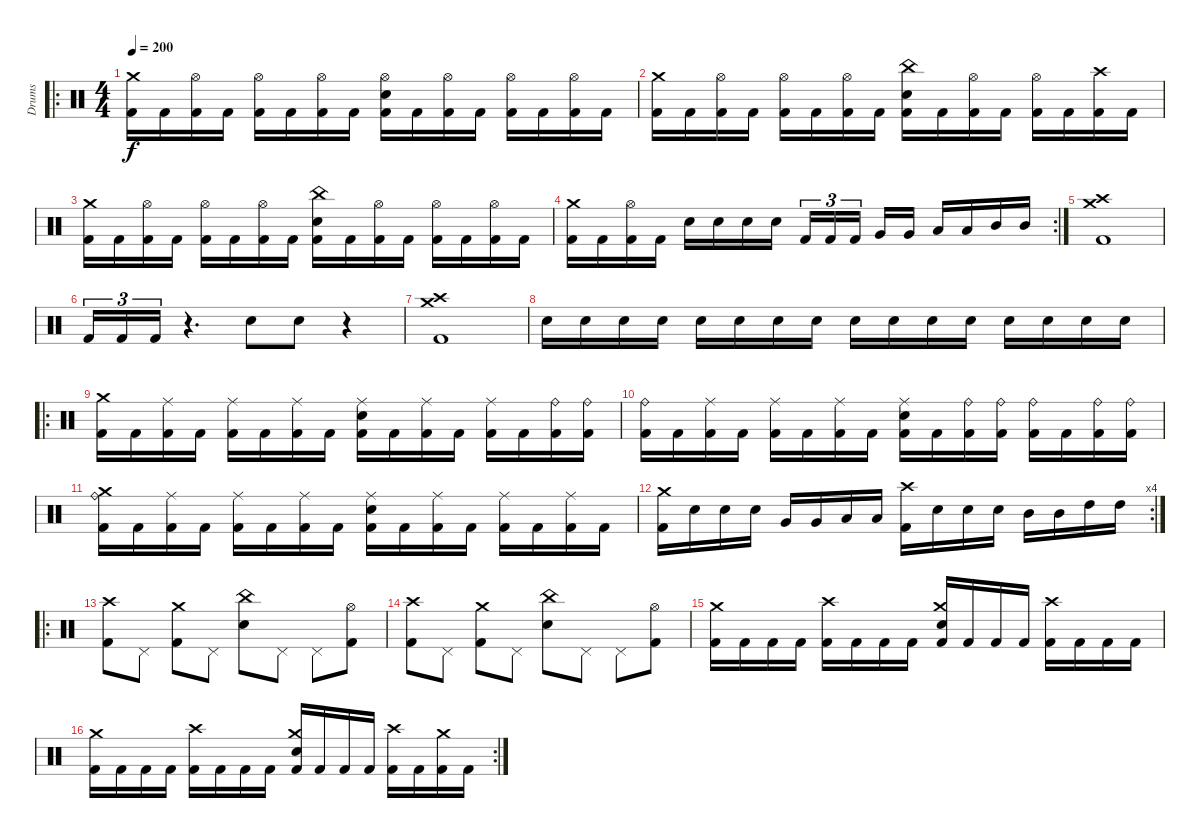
\track ("Drums" "Drums") {instrument percussion}
\staff {score}
\articulation defaults
\ro
\ts (4 4)
\tempo 200
\clef neutral
\ks c
("Kick (hit) 2" "Crash medium (hit)").16{dy f} "Kick (hit) 2".16 ("Kick (hit) 2" "Hi-Hat (open)").16 "Kick (hit) 2".16 ("Kick (hit) 2" "Hi-Hat (open)").16 "Kick (hit) 2".16 ("Kick (hit) 2" "Hi-Hat (open)").16 "Kick (hit) 2".16 ("Kick (hit) 2" "Electric Snare (hit)" "Hi-Hat (open)").16 "Kick (hit) 2".16 ("Kick (hit) 2" "Hi-Hat (open)").16 "Kick (hit) 2".16 ("Kick (hit) 2" "Hi-Hat (open)").16 "Kick (hit) 2".16 ("Kick (hit) 2" "Hi-Hat (open)").16 "Kick (hit) 2".16 |
("Kick (hit) 2" "Crash medium (hit)").16 "Kick (hit) 2".16 ("Kick (hit) 2" "Hi-Hat (open)").16 "Kick (hit) 2".16 ("Kick (hit) 2" "Hi-Hat (open)").16 "Kick (hit) 2".16 ("Kick (hit) 2" "Hi-Hat (open)").16 "Kick (hit) 2".16 ("Kick (hit) 2" "Electric Snare (hit)" "China (hit)").16 "Kick (hit) 2".16 ("Kick (hit) 2" "Hi-Hat (open)").16 "Kick (hit) 2".16 ("Kick (hit) 2" "Hi-Hat (open)").16 "Kick (hit) 2".16 ("Kick (hit) 2" "Crash high (hit)").16 "Kick (hit) 2".16 |
("Kick (hit) 2" "Crash medium (hit)").16 "Kick (hit) 2".16 ("Kick (hit) 2" "Hi-Hat (open)").16 "Kick (hit) 2".16 ("Kick (hit) 2" "Hi-Hat (open)").16 "Kick (hit) 2".16 ("Kick (hit) 2" "Hi-Hat (open)").16 "Kick (hit) 2".16 ("Kick (hit) 2" "Electric Snare (hit)" "China (hit)").16 "Kick (hit) 2".16 ("Kick (hit) 2" "Hi-Hat (open)").16 "Kick (hit) 2".16 ("Kick (hit) 2" "Hi-Hat (open)").16 "Kick (hit) 2".16 ("Kick (hit) 2" "Hi-Hat (open)").16 "Kick (hit) 2".16 |
\rc 2
("Kick (hit) 2" "Crash medium (hit)").16 "Kick (hit) 2".16 ("Kick (hit) 2" "Hi-Hat (open)").16 "Kick (hit) 2".16 "Electric Snare (hit)".16 "Electric Snare (hit)".16 "Electric Snare (hit)".16 "Electric Snare (hit)".16 "Kick (hit) 2".16{tu (3 2)} "Kick (hit) 2".16{tu (3 2)} "Kick (hit) 2".16{tu (3 2)} "Very Low Tom (hit)".16 "Very Low Tom (hit)".16 "Low Tom (hit)".16 "Low Tom (hit)".16 "Mid Tom (hit)".16 "Mid Tom (hit)".16 |
("Kick (hit) 2" "Crash high (hit)" "Crash medium (hit)").1 |
"Kick (hit) 2".16{tu (3 2)} "Kick (hit) 2".16{tu (3 2)} "Kick (hit) 2".16{tu (3 2)} r.4{d} "Electric Snare (hit)".8 "Electric Snare (hit)".8 r.4 |
("Kick (hit) 2" "Crash high (hit)" "Crash medium (hit)").1 |
"Electric Snare (hit)"{x}.16{volume 0} "Electric Snare (hit)".16{volume 13} "Electric Snare (hit)".16 "Electric Snare (hit)".16 "Electric Snare (hit)".16 "Electric Snare (hit)".16 "Electric Snare (hit)".16 "Electric Snare (hit)".16 "Electric Snare (hit)".16 "Electric Snare (hit)".16 "Electric Snare (hit)".16 "Electric Snare (hit)".16 "Electric Snare (hit)".16 "Electric Snare (hit)".16 "Electric Snare (hit)".16 "Electric Snare (hit)".16 |
\ro
("Kick (hit) 2" "Crash medium (hit)").16 "Kick (hit) 2".16 ("Kick (hit) 2" "Ride (middle)").16 "Kick (hit) 2".16 ("Kick (hit) 2" "Ride (middle)").16 "Kick (hit) 2".16 ("Kick (hit) 2" "Ride (middle)").16 "Kick (hit) 2".16 ("Kick (hit) 2" "Electric Snare (hit)" "Ride (middle)").16 "Kick (hit) 2".16 ("Kick (hit) 2" "Ride (middle)").16 "Kick (hit) 2".16 ("Kick (hit) 2" "Ride (middle)").16 "Kick (hit) 2".16 ("Kick (hit) 2" "Ride (bell)").16 ("Kick (hit) 2" "Ride (bell)").16 |
("Kick (hit) 2" "Ride (bell)").16 "Kick (hit) 2".16 ("Kick (hit) 2" "Ride (middle)").16 "Kick (hit) 2".16 ("Kick (hit) 2" "Ride (middle)").16 "Kick (hit) 2".16 ("Kick (hit) 2" "Ride (middle)").16 "Kick (hit) 2".16 ("Kick (hit) 2" "Electric Snare (hit)" "Ride (middle)").16 "Kick (hit) 2".16 ("Kick (hit) 2" "Ride (bell)").16 ("Kick (hit) 2" "Ride (bell)").16 ("Kick (hit) 2" "Ride (bell)").16 "Kick (hit) 2".16 ("Kick (hit) 2" "Ride (bell)").16 ("Kick (hit) 2" "Ride (bell)").16 |
("Kick (hit) 2" "Ride (bell)" "Crash medium (hit)").16 "Kick (hit) 2".16 ("Kick (hit) 2" "Ride (middle)").16 "Kick (hit) 2".16 ("Kick (hit) 2" "Ride (middle)").16 "Kick (hit) 2".16 ("Kick (hit) 2" "Ride (middle)").16 "Kick (hit) 2".16 ("Kick (hit) 2" "Electric Snare (hit)" "Ride (middle)").16 "Kick (hit) 2".16 ("Kick (hit) 2" "Ride (middle)").16 "Kick (hit) 2".16 ("Kick (hit) 2" "Ride (middle)").16 "Kick (hit) 2".16 ("Kick (hit) 2" "Ride (middle)").16 "Kick (hit) 2".16 |
\rc 4
("Kick (hit) 2" "Crash medium (hit)").16 "Electric Snare (hit)".16 "Electric Snare (hit)".16 "Electric Snare (hit)".16 "Very Low Tom (hit)".16 "Very Low Tom (hit)".16 "Low Tom (hit)".16 "Low Tom (hit)".16 ("Kick (hit) 2" "Crash high (hit)").16 "Electric Snare (hit)".16 "Electric Snare (hit)".16 "Electric Snare (hit)".16 "Mid Tom (hit)".16 "Mid Tom (hit)".16 "High Tom (hit)".16 "High Tom (hit)".16 |
\ro
("Kick (hit) 2" "Crash high (hit)").8 "Pedal Hi-Hat (hit)".8 ("Kick (hit) 2" "Crash medium (hit)").8 "Pedal Hi-Hat (hit)".8 ("Electric Snare (hit)" "China (hit)").8 "Pedal Hi-Hat (hit)".8 "Pedal Hi-Hat (hit)".8 ("Kick (hit) 2" "Hi-Hat (open)").8 |
("Kick (hit) 2" "Crash high (hit)").8 "Pedal Hi-Hat (hit)".8 ("Kick (hit) 2" "Crash medium (hit)").8 "Pedal Hi-Hat (hit)".8 ("Electric Snare (hit)" "China (hit)").8 "Pedal Hi-Hat (hit)".8 "Pedal Hi-Hat (hit)".8 ("Kick (hit) 2" "Hi-Hat (open)").8 |
("Kick (hit) 2" "Crash medium (hit)").16 "Kick (hit) 2".16 "Kick (hit) 2".16 "Kick (hit) 2".16 ("Kick (hit) 2" "Crash high (hit)").16 "Kick (hit) 2".16 "Kick (hit) 2".16 "Kick (hit) 2".16 ("Kick (hit) 2" "Electric Snare (hit)" "Crash medium (hit)").16 "Kick (hit) 2".16 "Kick (hit) 2".16 "Kick (hit) 2".16 ("Kick (hit) 2" "Crash high (hit)").16 "Kick (hit) 2".16 "Kick (hit) 2".16 "Kick (hit) 2".16 |
\rc 2
("Kick (hit) 2" "Crash medium (hit)").16 "Kick (hit) 2".16 "Kick (hit) 2".16 "Kick (hit) 2".16 ("Kick (hit) 2" "Crash high (hit)").16 "Kick (hit) 2".16 "Kick (hit) 2".16 "Kick (hit) 2".16 ("Kick (hit) 2" "Electric Snare (hit)" "Crash medium (hit)").16 "Kick (hit) 2".16 "Kick (hit) 2".16 "Kick (hit) 2".16 ("Kick (hit) 2" "Crash high (hit)").16 "Kick (hit) 2".16 ("Kick (hit) 2" "Crash medium (hit)").16 "Kick (hit) 2".16
